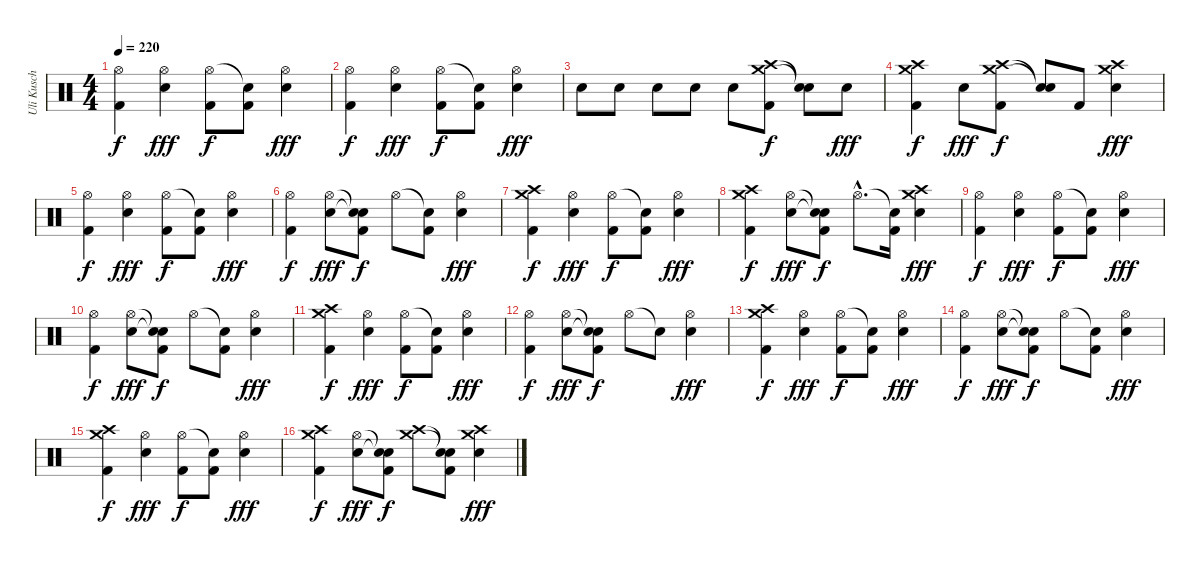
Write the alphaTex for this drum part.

\track ("Uli Kusch" "Uli Kusch") {instrument percussion}
\staff {score}
\articulation defaults
\ts (4 4)
\tempo 220
\clef neutral
\ks c
("Hi-Hat (open)" "Kick (hit) 2").4{dy f} ("Hi-Hat (open)" "Electric Snare (hit)").4{dy fff} ("Hi-Hat (open)" "Kick (hit) 2").8{dy f} ("Snare (hit)"{t} "Kick (hit) 2").8 ("Hi-Hat (open)" "Electric Snare (hit)").4{dy fff} |
("Hi-Hat (open)" "Kick (hit) 2").4{dy f} ("Hi-Hat (open)" "Electric Snare (hit)").4{dy fff} ("Hi-Hat (open)" "Kick (hit) 2").8{dy f} ("Snare (hit)"{t} "Kick (hit) 2").8 ("Hi-Hat (open)" "Electric Snare (hit)").4{dy fff} |
"Electric Snare (hit)".8 "Electric Snare (hit)".8 "Electric Snare (hit)".8 "Electric Snare (hit)".8 "Electric Snare (hit)".8 ("Crash medium (hit)" "Crash high (hit)" "Kick (hit) 2").8{dy f} ("Snare (hit)"{t} "Snare (hit)"{t}).8 "Electric Snare (hit)".8{dy fff} |
("Crash medium (hit)" "Crash high (hit)" "Kick (hit) 2").4{dy f} "Electric Snare (hit)".8{dy fff} ("Crash medium (hit)" "Crash high (hit)" "Kick (hit) 2").8{dy f} ("Snare (hit)"{t} "Snare (hit)"{t}).8 "Kick (hit) 2".8 ("Crash medium (hit)" "Crash high (hit)" "Electric Snare (hit)").4{dy fff} |
("Hi-Hat (open)" "Kick (hit) 2").4{dy f} ("Hi-Hat (open)" "Electric Snare (hit)").4{dy fff} ("Hi-Hat (open)" "Kick (hit) 2").8{dy f} ("Snare (hit)"{t} "Kick (hit) 2").8 ("Hi-Hat (open)" "Electric Snare (hit)").4{dy fff} |
("Hi-Hat (open)" "Kick (hit) 2").4{dy f} ("Hi-Hat (open)" "Electric Snare (hit)").8{dy fff} ("Snare (hit)"{t} "Snare (hit)"{t} "Kick (hit) 2").8{dy f} "Hi-Hat (open)".8 ("Snare (hit)"{t} "Kick (hit) 2").8 ("Hi-Hat (open)" "Electric Snare (hit)").4{dy fff} |
("Crash medium (hit)" "Crash high (hit)" "Kick (hit) 2").4{dy f} ("Hi-Hat (open)" "Electric Snare (hit)").4{dy fff} ("Hi-Hat (open)" "Kick (hit) 2").8{dy f} ("Snare (hit)"{t} "Kick (hit) 2").8 ("Hi-Hat (open)" "Electric Snare (hit)").4{dy fff} |
("Crash high (hit)" "Crash medium (hit)" "Kick (hit) 2").4{dy f} ("Hi-Hat (open)" "Electric Snare (hit)").8{dy fff} ("Snare (hit)"{t} "Snare (hit)"{t} "Kick (hit) 2").8{dy f} "Hi-Hat (open)"{hac}.8{d} ("Snare (hit)"{t} "Kick (hit) 2").16 ("Crash high (hit)" "Crash medium (hit)" "Electric Snare (hit)").4{dy fff} |
("Hi-Hat (open)" "Kick (hit) 2").4{dy f} ("Hi-Hat (open)" "Electric Snare (hit)").4{dy fff} ("Hi-Hat (open)" "Kick (hit) 2").8{dy f} ("Snare (hit)"{t} "Kick (hit) 2").8 ("Hi-Hat (open)" "Electric Snare (hit)").4{dy fff} |
("Hi-Hat (open)" "Kick (hit) 2").4{dy f} ("Hi-Hat (open)" "Electric Snare (hit)").8{dy fff} ("Snare (hit)"{t} "Snare (hit)"{t} "Kick (hit) 2").8{dy f} "Hi-Hat (open)".8 ("Snare (hit)"{t} "Kick (hit) 2").8 ("Hi-Hat (open)" "Electric Snare (hit)").4{dy fff} |
("Crash medium (hit)" "Crash high (hit)" "Kick (hit) 2").4{dy f} ("Hi-Hat (open)" "Electric Snare (hit)").4{dy fff} ("Hi-Hat (open)" "Kick (hit) 2").8{dy f} ("Snare (hit)"{t} "Kick (hit) 2").8 ("Hi-Hat (open)" "Electric Snare (hit)").4{dy fff} |
("Hi-Hat (open)" "Kick (hit) 2").4{dy f} ("Hi-Hat (open)" "Electric Snare (hit)").8{dy fff} ("Snare (hit)"{t} "Snare (hit)"{t} "Kick (hit) 2").8{dy f} "Hi-Hat (open)".8 "Snare (hit)"{t}.8 ("Hi-Hat (open)" "Electric Snare (hit)").4{dy fff} |
("Crash medium (hit)" "Crash high (hit)" "Kick (hit) 2").4{dy f} ("Hi-Hat (open)" "Electric Snare (hit)").4{dy fff} ("Hi-Hat (open)" "Kick (hit) 2").8{dy f} ("Snare (hit)"{t} "Kick (hit) 2").8 ("Hi-Hat (open)" "Electric Snare (hit)").4{dy fff} |
("Hi-Hat (open)" "Kick (hit) 2").4{dy f} ("Hi-Hat (open)" "Electric Snare (hit)").8{dy fff} ("Snare (hit)"{t} "Snare (hit)"{t} "Kick (hit) 2").8{dy f} "Hi-Hat (open)".8 ("Snare (hit)"{t} "Kick (hit) 2").8 ("Hi-Hat (open)" "Electric Snare (hit)").4{dy fff} |
("Crash high (hit)" "Crash medium (hit)" "Kick (hit) 2").4{dy f} ("Hi-Hat (open)" "Electric Snare (hit)").4{dy fff} ("Hi-Hat (open)" "Kick (hit) 2").8{dy f} ("Snare (hit)"{t} "Kick (hit) 2").8 ("Hi-Hat (open)" "Electric Snare (hit)").4{dy fff} |
("Crash medium (hit)" "Crash high (hit)" "Kick (hit) 2").4{dy f} ("Hi-Hat (open)" "Electric Snare (hit)").8{dy fff} ("Snare (hit)"{t} "Snare (hit)"{t} "Kick (hit) 2").8{dy f} ("Crash medium (hit)" "Crash high (hit)").8 ("Snare (hit)"{t} "Snare (hit)"{t} "Kick (hit) 2").8 ("Crash medium (hit)" "Crash high (hit)" "Electric Snare (hit)").4{dy fff}
